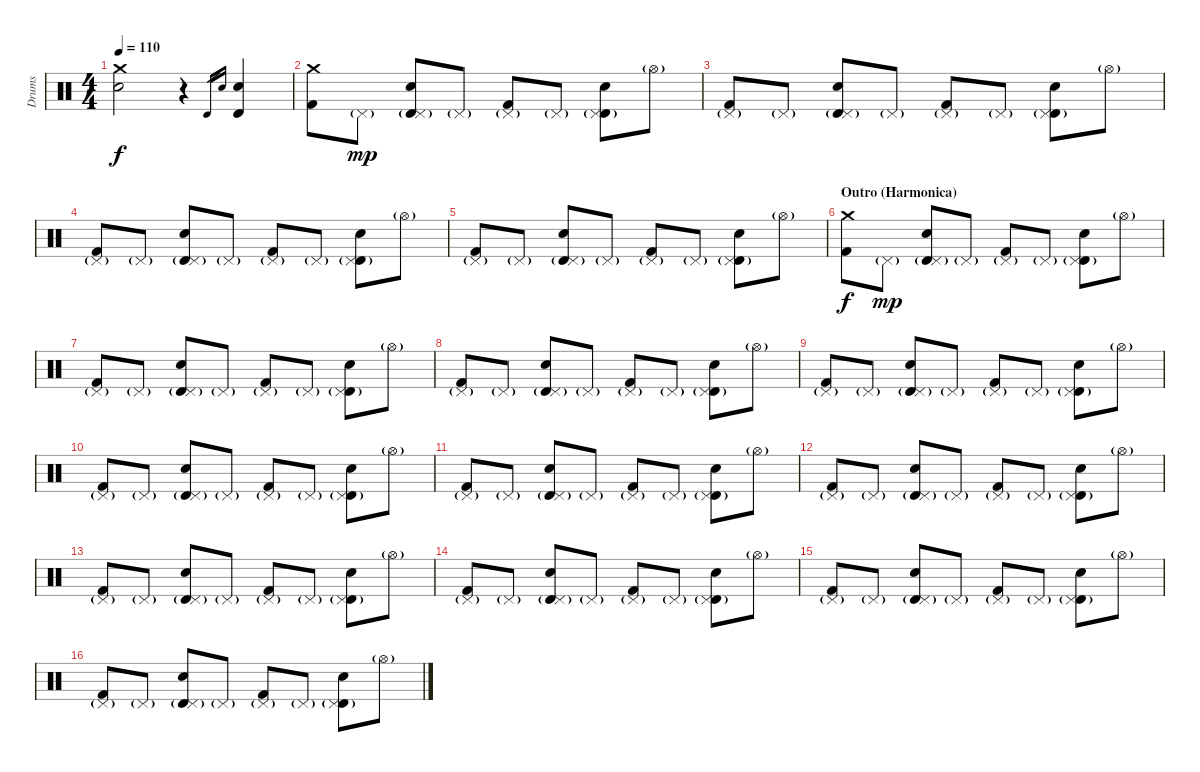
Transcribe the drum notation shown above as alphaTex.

\track ("Drums" "Drums") {instrument percussion}
\staff {score}
\articulation defaults
\ts (4 4)
\tempo 110
\clef neutral
\ks c
("Electric Snare (hit)" "Crash medium (hit)").2{dy f} r.4 "Timbale high (hit)".16{gr} "Electric Snare (hit)".16{gr} ("Timbale high (hit)" "Electric Snare (hit)").4 |
("Kick (hit) 2" "Crash medium (hit)").8 "Pedal Hi-Hat (hit)"{g}.8{dy mp} ("Timbale high (hit)" "Electric Snare (hit)" "Pedal Hi-Hat (hit)"{g}).8 "Pedal Hi-Hat (hit)"{g}.8 ("Kick (hit) 2" "Pedal Hi-Hat (hit)"{g}).8 "Pedal Hi-Hat (hit)"{g}.8 ("Timbale high (hit)" "Electric Snare (hit)" "Pedal Hi-Hat (hit)"{g}).8 "Hi-Hat (open)"{g}.8 |
("Kick (hit) 2" "Pedal Hi-Hat (hit)"{g}).8 "Pedal Hi-Hat (hit)"{g}.8 ("Timbale high (hit)" "Electric Snare (hit)" "Pedal Hi-Hat (hit)"{g}).8 "Pedal Hi-Hat (hit)"{g}.8 ("Kick (hit) 2" "Pedal Hi-Hat (hit)"{g}).8 "Pedal Hi-Hat (hit)"{g}.8 ("Timbale high (hit)" "Electric Snare (hit)" "Pedal Hi-Hat (hit)"{g}).8 "Hi-Hat (open)"{g}.8 |
("Kick (hit) 2" "Pedal Hi-Hat (hit)"{g}).8 "Pedal Hi-Hat (hit)"{g}.8 ("Timbale high (hit)" "Electric Snare (hit)" "Pedal Hi-Hat (hit)"{g}).8 "Pedal Hi-Hat (hit)"{g}.8 ("Kick (hit) 2" "Pedal Hi-Hat (hit)"{g}).8 "Pedal Hi-Hat (hit)"{g}.8 ("Timbale high (hit)" "Electric Snare (hit)" "Pedal Hi-Hat (hit)"{g}).8 "Hi-Hat (open)"{g}.8 |
("Kick (hit) 2" "Pedal Hi-Hat (hit)"{g}).8 "Pedal Hi-Hat (hit)"{g}.8 ("Timbale high (hit)" "Electric Snare (hit)" "Pedal Hi-Hat (hit)"{g}).8 "Pedal Hi-Hat (hit)"{g}.8 ("Kick (hit) 2" "Pedal Hi-Hat (hit)"{g}).8 "Pedal Hi-Hat (hit)"{g}.8 ("Timbale high (hit)" "Electric Snare (hit)" "Pedal Hi-Hat (hit)"{g}).8 "Hi-Hat (open)"{g}.8 |
\section ("" "Outro (Harmonica)")
("Kick (hit) 2" "Crash medium (hit)").8{dy f} "Pedal Hi-Hat (hit)"{g}.8{dy mp} ("Timbale high (hit)" "Electric Snare (hit)" "Pedal Hi-Hat (hit)"{g}).8 "Pedal Hi-Hat (hit)"{g}.8 ("Kick (hit) 2" "Pedal Hi-Hat (hit)"{g}).8 "Pedal Hi-Hat (hit)"{g}.8 ("Timbale high (hit)" "Electric Snare (hit)" "Pedal Hi-Hat (hit)"{g}).8 "Hi-Hat (open)"{g}.8 |
("Kick (hit) 2" "Pedal Hi-Hat (hit)"{g}).8 "Pedal Hi-Hat (hit)"{g}.8 ("Timbale high (hit)" "Electric Snare (hit)" "Pedal Hi-Hat (hit)"{g}).8 "Pedal Hi-Hat (hit)"{g}.8 ("Kick (hit) 2" "Pedal Hi-Hat (hit)"{g}).8 "Pedal Hi-Hat (hit)"{g}.8 ("Timbale high (hit)" "Electric Snare (hit)" "Pedal Hi-Hat (hit)"{g}).8 "Hi-Hat (open)"{g}.8 |
("Kick (hit) 2" "Pedal Hi-Hat (hit)"{g}).8 "Pedal Hi-Hat (hit)"{g}.8 ("Timbale high (hit)" "Electric Snare (hit)" "Pedal Hi-Hat (hit)"{g}).8 "Pedal Hi-Hat (hit)"{g}.8 ("Kick (hit) 2" "Pedal Hi-Hat (hit)"{g}).8 "Pedal Hi-Hat (hit)"{g}.8 ("Timbale high (hit)" "Electric Snare (hit)" "Pedal Hi-Hat (hit)"{g}).8 "Hi-Hat (open)"{g}.8 |
("Kick (hit) 2" "Pedal Hi-Hat (hit)"{g}).8 "Pedal Hi-Hat (hit)"{g}.8 ("Timbale high (hit)" "Electric Snare (hit)" "Pedal Hi-Hat (hit)"{g}).8 "Pedal Hi-Hat (hit)"{g}.8 ("Kick (hit) 2" "Pedal Hi-Hat (hit)"{g}).8 "Pedal Hi-Hat (hit)"{g}.8 ("Timbale high (hit)" "Electric Snare (hit)" "Pedal Hi-Hat (hit)"{g}).8 "Hi-Hat (open)"{g}.8 |
("Kick (hit) 2" "Pedal Hi-Hat (hit)"{g}).8 "Pedal Hi-Hat (hit)"{g}.8 ("Timbale high (hit)" "Electric Snare (hit)" "Pedal Hi-Hat (hit)"{g}).8 "Pedal Hi-Hat (hit)"{g}.8 ("Kick (hit) 2" "Pedal Hi-Hat (hit)"{g}).8{volume 8} "Pedal Hi-Hat (hit)"{g}.8 ("Timbale high (hit)" "Electric Snare (hit)" "Pedal Hi-Hat (hit)"{g}).8 "Hi-Hat (open)"{g}.8 |
("Kick (hit) 2" "Pedal Hi-Hat (hit)"{g}).8 "Pedal Hi-Hat (hit)"{g}.8 ("Timbale high (hit)" "Electric Snare (hit)" "Pedal Hi-Hat (hit)"{g}).8 "Pedal Hi-Hat (hit)"{g}.8 ("Kick (hit) 2" "Pedal Hi-Hat (hit)"{g}).8 "Pedal Hi-Hat (hit)"{g}.8 ("Timbale high (hit)" "Electric Snare (hit)" "Pedal Hi-Hat (hit)"{g}).8 "Hi-Hat (open)"{g}.8 |
("Kick (hit) 2" "Pedal Hi-Hat (hit)"{g}).8 "Pedal Hi-Hat (hit)"{g}.8 ("Timbale high (hit)" "Electric Snare (hit)" "Pedal Hi-Hat (hit)"{g}).8 "Pedal Hi-Hat (hit)"{g}.8 ("Kick (hit) 2" "Pedal Hi-Hat (hit)"{g}).8 "Pedal Hi-Hat (hit)"{g}.8 ("Timbale high (hit)" "Electric Snare (hit)" "Pedal Hi-Hat (hit)"{g}).8 "Hi-Hat (open)"{g}.8 |
("Kick (hit) 2" "Pedal Hi-Hat (hit)"{g}).8 "Pedal Hi-Hat (hit)"{g}.8 ("Timbale high (hit)" "Electric Snare (hit)" "Pedal Hi-Hat (hit)"{g}).8 "Pedal Hi-Hat (hit)"{g}.8 ("Kick (hit) 2" "Pedal Hi-Hat (hit)"{g}).8 "Pedal Hi-Hat (hit)"{g}.8 ("Timbale high (hit)" "Electric Snare (hit)" "Pedal Hi-Hat (hit)"{g}).8 "Hi-Hat (open)"{g}.8 |
("Kick (hit) 2" "Pedal Hi-Hat (hit)"{g}).8{volume 3} "Pedal Hi-Hat (hit)"{g}.8 ("Timbale high (hit)" "Electric Snare (hit)" "Pedal Hi-Hat (hit)"{g}).8 "Pedal Hi-Hat (hit)"{g}.8 ("Kick (hit) 2" "Pedal Hi-Hat (hit)"{g}).8 "Pedal Hi-Hat (hit)"{g}.8 ("Timbale high (hit)" "Electric Snare (hit)" "Pedal Hi-Hat (hit)"{g}).8 "Hi-Hat (open)"{g}.8 |
("Kick (hit) 2" "Pedal Hi-Hat (hit)"{g}).8 "Pedal Hi-Hat (hit)"{g}.8 ("Timbale high (hit)" "Electric Snare (hit)" "Pedal Hi-Hat (hit)"{g}).8 "Pedal Hi-Hat (hit)"{g}.8 ("Kick (hit) 2" "Pedal Hi-Hat (hit)"{g}).8{volume 0} "Pedal Hi-Hat (hit)"{g}.8 ("Timbale high (hit)" "Electric Snare (hit)" "Pedal Hi-Hat (hit)"{g}).8 "Hi-Hat (open)"{g}.8 |
("Kick (hit) 2" "Pedal Hi-Hat (hit)"{g}).8 "Pedal Hi-Hat (hit)"{g}.8 ("Timbale high (hit)" "Electric Snare (hit)" "Pedal Hi-Hat (hit)"{g}).8 "Pedal Hi-Hat (hit)"{g}.8 ("Kick (hit) 2" "Pedal Hi-Hat (hit)"{g}).8 "Pedal Hi-Hat (hit)"{g}.8 ("Timbale high (hit)" "Electric Snare (hit)" "Pedal Hi-Hat (hit)"{g}).8 "Hi-Hat (open)"{g}.8
